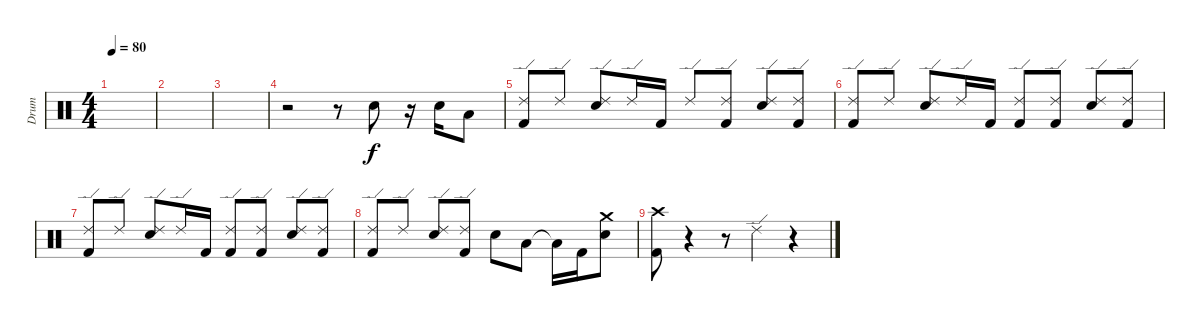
\track ("Drum" "Drum") {instrument percussion}
\staff {score}
\articulation defaults
\ts (4 4)
\tempo 80
\clef neutral
\ks c
|
|
|
r.2 r.8 "Electric Snare (hit)".8 r.16 "Electric Snare (hit)".16 "Low Tom (hit)".8 |
("Ride (edge) 2" "Kick (hit) 2").8 "Ride (edge) 2".8 ("Ride (edge) 2" "Electric Snare (hit)").8 "Ride (edge) 2".16 "Kick (hit) 2".16 "Ride (edge) 2".8 ("Ride (edge) 2" "Kick (hit) 2").8 ("Ride (edge) 2" "Electric Snare (hit)").8 ("Ride (edge) 2" "Kick (hit) 2").8 |
("Ride (edge) 2" "Kick (hit) 2").8 "Ride (edge) 2".8 ("Ride (edge) 2" "Electric Snare (hit)").8 "Ride (edge) 2".16 "Kick (hit) 2".16 ("Ride (edge) 2" "Kick (hit) 2").8 ("Ride (edge) 2" "Kick (hit) 2").8 ("Ride (edge) 2" "Electric Snare (hit)").8 ("Ride (edge) 2" "Kick (hit) 2").8 |
("Ride (edge) 2" "Kick (hit) 2").8 "Ride (edge) 2".8 ("Ride (edge) 2" "Electric Snare (hit)").8 "Ride (edge) 2".16 "Kick (hit) 2".16 ("Ride (edge) 2" "Kick (hit) 2").8 ("Ride (edge) 2" "Kick (hit) 2").8 ("Ride (edge) 2" "Electric Snare (hit)").8 ("Ride (edge) 2" "Kick (hit) 2").8 |
("Ride (edge) 2" "Kick (hit) 2").8 "Ride (edge) 2".8 ("Ride (edge) 2" "Electric Snare (hit)").8 ("Ride (edge) 2" "Kick (hit) 2").8 "Electric Snare (hit)".8 "Low Tom (hit)".8 "Low Tom (hit)"{t}.16 "Kick (hit) 2".16 ("Crash medium (hit)" "Electric Snare (hit)").8 |
("Crash high (hit)" "Kick (hit) 2").8 r.4 r.8 "Ride (edge) 2".4 r.4
